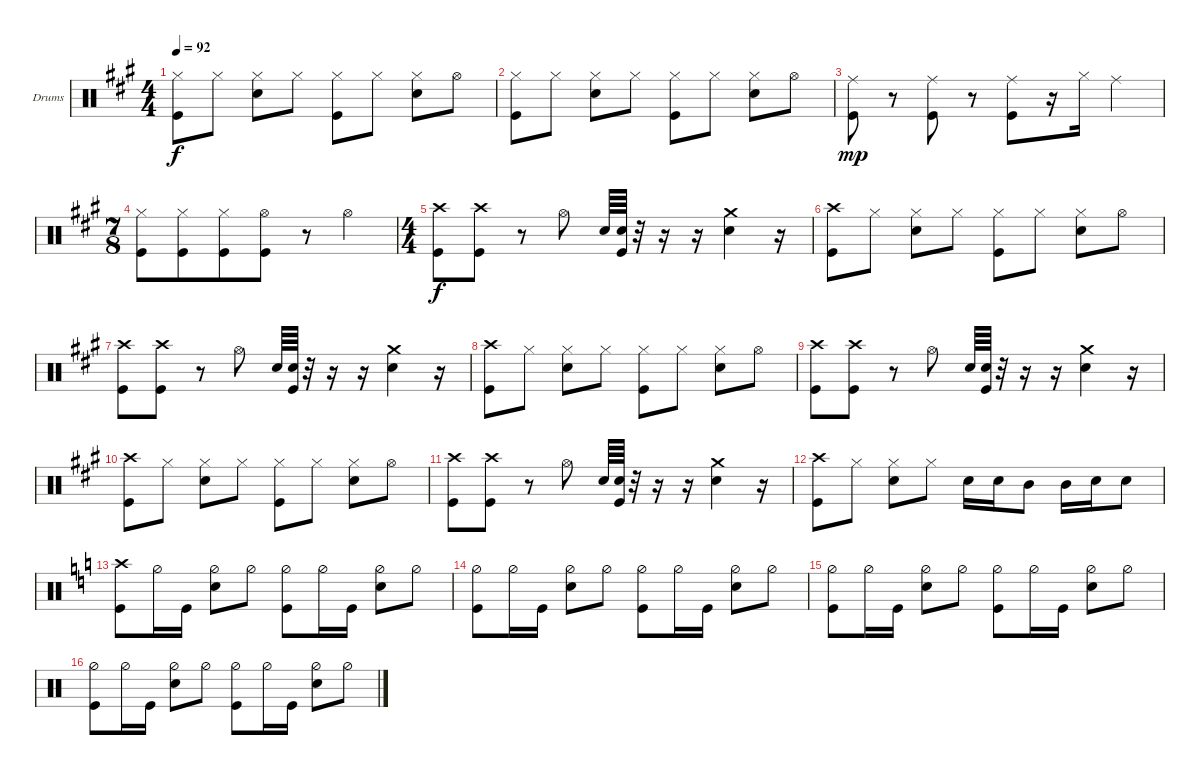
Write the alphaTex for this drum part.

\defaultSystemsLayout 4
\bracketExtendMode groupsimilarinstruments
\firstSystemTrackNameOrientation horizontal
\otherSystemsTrackNameOrientation horizontal
\track ("Drumkit (Collins)" "Drums") {instrument percussion}
\staff {score}
\articulation defaults
\ts (4 4)
\tempo 92
\clef neutral
\ks f#minor
("Kick (hit)" "Hi-Hat (closed)").8{dy f} "Hi-Hat (closed)".8 ("Snare (hit) 2" "Hi-Hat (closed)").8 "Hi-Hat (closed)".8 ("Kick (hit)" "Hi-Hat (closed)").8 "Hi-Hat (closed)".8 ("Snare (hit) 2" "Hi-Hat (closed)").8 "Hi-Hat (open)".8 |
("Kick (hit)" "Hi-Hat (closed)").8 "Hi-Hat (closed)".8 ("Snare (hit) 2" "Hi-Hat (closed)").8 "Hi-Hat (closed)".8 ("Kick (hit)" "Hi-Hat (closed)").8 "Hi-Hat (closed)".8 ("Snare (hit) 2" "Hi-Hat (closed)").8 "Hi-Hat (open)".8 |
("Ride (middle)" "Kick (hit)").8{dy mp} r.8 ("Kick (hit)" "Ride (middle)").8 r.8 ("Ride (middle)" "Kick (hit)").8 r.16 "Hi-Hat (closed)".16 "Ride (middle)".4 |
\ts (7 8)
("Kick (hit)" "Hi-Hat (closed)").8 ("Kick (hit)" "Hi-Hat (closed)").8 ("Kick (hit)" "Hi-Hat (closed)").8 ("Kick (hit)" "Hi-Hat (open)").8 r.8 "Hi-Hat (open)".4 |
\ts (4 4)
("Kick (hit)" "Crash high (hit)").8{dy f} ("Kick (hit)" "Crash high (hit)").8 r.8 "Hi-Hat (open)".8 "Snare (hit) 2".64 ("Snare (hit) 2" "Kick (hit)").64 r.32 r.16 r.16 ("Snare (hit) 2" "Crash medium (hit)").4 r.16 |
("Kick (hit)" "Crash high (hit)").8 "Hi-Hat (closed)".8 ("Snare (hit) 2" "Hi-Hat (closed)").8 "Hi-Hat (closed)".8 ("Kick (hit)" "Hi-Hat (closed)").8 "Hi-Hat (closed)".8 ("Snare (hit) 2" "Hi-Hat (closed)").8 "Hi-Hat (open)".8 |
("Kick (hit)" "Crash high (hit)").8 ("Kick (hit)" "Crash high (hit)").8 r.8 "Hi-Hat (open)".8 "Snare (hit) 2".64 ("Snare (hit) 2" "Kick (hit)").64 r.32 r.16 r.16 ("Snare (hit) 2" "Crash medium (hit)").4 r.16 |
("Kick (hit)" "Crash high (hit)").8 "Hi-Hat (closed)".8 ("Snare (hit) 2" "Hi-Hat (closed)").8 "Hi-Hat (closed)".8 ("Kick (hit)" "Hi-Hat (closed)").8 "Hi-Hat (closed)".8 ("Snare (hit) 2" "Hi-Hat (closed)").8 "Hi-Hat (open)".8 |
("Kick (hit)" "Crash high (hit)").8 ("Kick (hit)" "Crash high (hit)").8 r.8 "Hi-Hat (open)".8 "Snare (hit) 2".64 ("Snare (hit) 2" "Kick (hit)").64 r.32 r.16 r.16 ("Snare (hit) 2" "Crash medium (hit)").4 r.16 |
("Kick (hit)" "Crash high (hit)").8 "Hi-Hat (closed)".8 ("Snare (hit) 2" "Hi-Hat (closed)").8 "Hi-Hat (closed)".8 ("Kick (hit)" "Hi-Hat (closed)").8 "Hi-Hat (closed)".8 ("Snare (hit) 2" "Hi-Hat (closed)").8 "Hi-Hat (open)".8 |
("Kick (hit)" "Crash high (hit)").8 ("Kick (hit)" "Crash high (hit)").8 r.8 "Hi-Hat (open)".8 "Snare (hit) 2".64 ("Snare (hit) 2" "Kick (hit)").64 r.32 r.16 r.16 ("Snare (hit) 2" "Crash medium (hit)").4 r.16 |
("Kick (hit)" "Crash high (hit)").8 "Hi-Hat (closed)".8 ("Snare (hit) 2" "Hi-Hat (closed)").8 "Hi-Hat (closed)".8 "Snare (hit) 2".16 "Snare (hit) 2".16 "Mid Tom (hit)".8 "Mid Tom (hit)".16 "Snare (hit) 2".16 "Snare (hit) 2".8 |
\ks c
("Kick (hit)" "Crash high (hit)").8 "Hi-Hat (half)".16 "Kick (hit)".16 ("Hi-Hat (half)" "Snare (hit) 2").8 "Hi-Hat (half)".8 ("Kick (hit)" "Hi-Hat (half)").8 "Hi-Hat (half)".16 "Kick (hit)".16 ("Hi-Hat (half)" "Snare (hit) 2").8 "Hi-Hat (half)".8 |
("Kick (hit)" "Hi-Hat (half)").8 "Hi-Hat (half)".16 "Kick (hit)".16 ("Hi-Hat (half)" "Snare (hit) 2").8 "Hi-Hat (half)".8 ("Kick (hit)" "Hi-Hat (half)").8 "Hi-Hat (half)".16 "Kick (hit)".16 ("Hi-Hat (half)" "Snare (hit) 2").8 "Hi-Hat (half)".8 |
("Kick (hit)" "Hi-Hat (half)").8 "Hi-Hat (half)".16 "Kick (hit)".16 ("Hi-Hat (half)" "Snare (hit) 2").8 "Hi-Hat (half)".8 ("Kick (hit)" "Hi-Hat (half)").8 "Hi-Hat (half)".16 "Kick (hit)".16 ("Hi-Hat (half)" "Snare (hit) 2").8 "Hi-Hat (half)".8 |
("Kick (hit)" "Hi-Hat (half)").8 "Hi-Hat (half)".16 "Kick (hit)".16 ("Hi-Hat (half)" "Snare (hit) 2").8 "Hi-Hat (half)".8 ("Kick (hit)" "Hi-Hat (half)").8 "Hi-Hat (half)".16 "Kick (hit)".16 ("Hi-Hat (half)" "Snare (hit) 2").8 "Hi-Hat (half)".8
